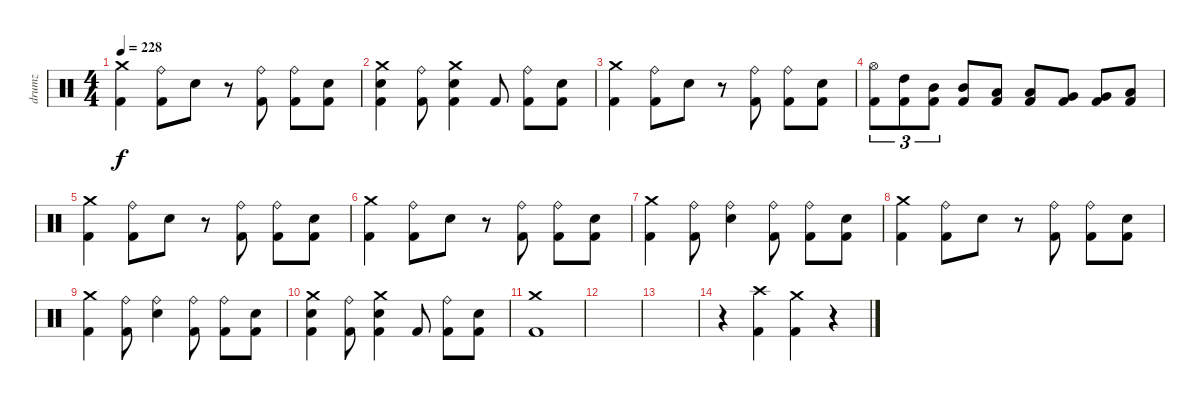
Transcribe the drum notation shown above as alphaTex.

\track ("drumz" "drumz") {instrument percussion}
\staff {score}
\articulation defaults
\ts (4 4)
\tempo 228
\clef neutral
\ks c
("Crash medium (hit)" "Kick (hit) 2").4{dy f} ("Ride (bell)" "Kick (hit) 2").8 "Snare (hit) 2".8 r.8 ("Ride (bell)" "Kick (hit) 2").8 ("Ride (bell)" "Kick (hit) 2").8 ("Snare (hit) 2" "Kick (hit) 2").8 |
("Crash medium (hit)" "Snare (hit) 2" "Kick (hit) 2").4 ("Ride (bell)" "Kick (hit) 2").8 ("Crash medium (hit)" "Snare (hit) 2" "Kick (hit) 2").4 "Kick (hit) 2".8 ("Ride (bell)" "Kick (hit) 2").8 ("Snare (hit) 2" "Kick (hit) 2").8 |
("Crash medium (hit)" "Kick (hit) 2").4 ("Ride (bell)" "Kick (hit) 2").8 "Snare (hit) 2".8 r.8 ("Ride (bell)" "Kick (hit) 2").8 ("Ride (bell)" "Kick (hit) 2").8 ("Snare (hit) 2" "Kick (hit) 2").8 |
("Hi-Hat (open)" "Kick (hit) 2").8{tu (3 2)} ("High Tom (hit)" "Kick (hit) 2").8{tu (3 2)} ("Mid Tom (hit)" "Kick (hit) 2").8{tu (3 2)} ("Mid Tom (hit)" "Kick (hit) 2").8 ("Low Tom (hit)" "Kick (hit) 2").8 ("Low Tom (hit)" "Kick (hit) 2").8 ("Very Low Tom (hit)" "Kick (hit) 2").8 ("Very Low Tom (hit)" "Kick (hit) 2").8 ("Low Floor Tom (hit)" "Kick (hit) 2").8 |
("Crash medium (hit)" "Kick (hit) 2").4 ("Ride (bell)" "Kick (hit) 2").8 "Snare (hit) 2".8 r.8 ("Ride (bell)" "Kick (hit) 2").8 ("Ride (bell)" "Kick (hit) 2").8 ("Snare (hit) 2" "Kick (hit) 2").8 |
("Crash medium (hit)" "Kick (hit) 2").4 ("Ride (bell)" "Kick (hit) 2").8 "Snare (hit) 2".8 r.8 ("Ride (bell)" "Kick (hit) 2").8 ("Ride (bell)" "Kick (hit) 2").8 ("Snare (hit) 2" "Kick (hit) 2").8 |
("Crash medium (hit)" "Kick (hit) 2").4 ("Ride (bell)" "Kick (hit) 2").8 ("Ride (bell)" "Snare (hit) 2").4 ("Ride (bell)" "Kick (hit) 2").8 ("Ride (bell)" "Kick (hit) 2").8 ("Snare (hit) 2" "Kick (hit) 2").8 |
("Crash medium (hit)" "Kick (hit) 2").4 ("Ride (bell)" "Kick (hit) 2").8 "Snare (hit) 2".8 r.8 ("Ride (bell)" "Kick (hit) 2").8 ("Ride (bell)" "Kick (hit) 2").8 ("Snare (hit) 2" "Kick (hit) 2").8 |
("Crash medium (hit)" "Kick (hit) 2").4 ("Ride (bell)" "Kick (hit) 2").8 ("Ride (bell)" "Snare (hit) 2").4 ("Ride (bell)" "Kick (hit) 2").8 ("Ride (bell)" "Kick (hit) 2").8 ("Snare (hit) 2" "Kick (hit) 2").8 |
("Crash medium (hit)" "Snare (hit) 2" "Kick (hit) 2").4 ("Ride (bell)" "Kick (hit) 2").8 ("Crash medium (hit)" "Snare (hit) 2" "Kick (hit) 2").4 "Kick (hit) 2".8 ("Ride (bell)" "Kick (hit) 2").8 ("Snare (hit) 2" "Kick (hit) 2").8 |
("Crash medium (hit)" "Kick (hit) 2").1 |
|
|
r.4 ("Crash high (hit)" "Kick (hit) 2").4 ("Crash medium (hit)" "Kick (hit) 2").4 r.4
